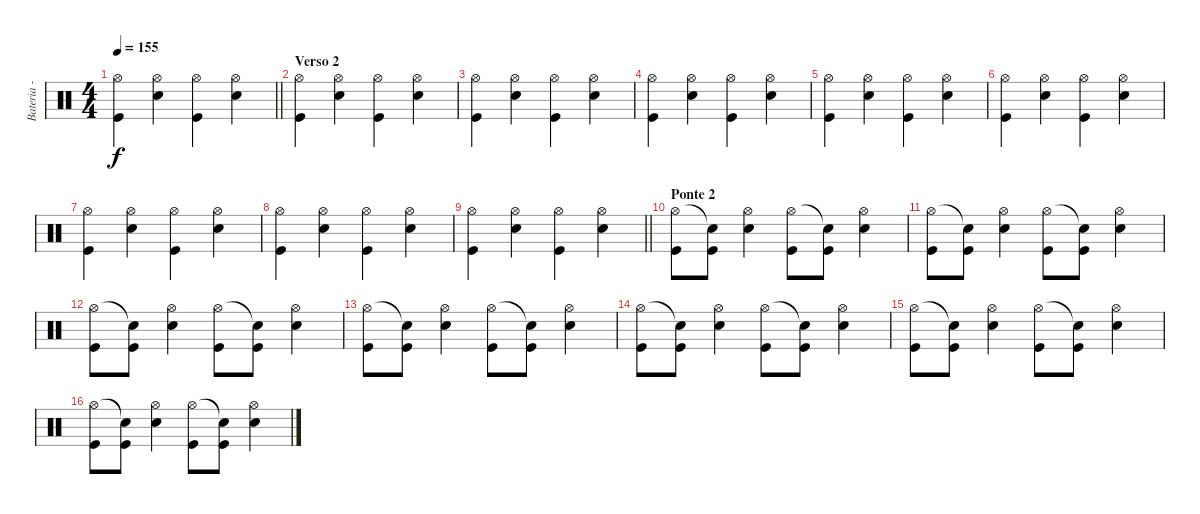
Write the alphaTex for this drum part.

\track ("Bateria - Craig Nunumacher" "Bateria - ") {instrument percussion}
\staff {score}
\articulation defaults
\ts (4 4)
\tempo 155
\clef neutral
\barLineRight lightlight
\ks c
("Hi-Hat (open)" "Kick (hit)").4{dy f} ("Hi-Hat (open)" "Electric Snare (hit)").4 ("Hi-Hat (open)" "Kick (hit)").4 ("Hi-Hat (open)" "Electric Snare (hit)").4 |
\section ("" "Verso 2")
("Hi-Hat (open)" "Kick (hit)").4 ("Hi-Hat (open)" "Electric Snare (hit)").4 ("Hi-Hat (open)" "Kick (hit)").4 ("Hi-Hat (open)" "Electric Snare (hit)").4 |
("Hi-Hat (open)" "Kick (hit)").4 ("Hi-Hat (open)" "Electric Snare (hit)").4 ("Hi-Hat (open)" "Kick (hit)").4 ("Hi-Hat (open)" "Electric Snare (hit)").4 |
("Hi-Hat (open)" "Kick (hit)").4 ("Hi-Hat (open)" "Electric Snare (hit)").4 ("Hi-Hat (open)" "Kick (hit)").4 ("Hi-Hat (open)" "Electric Snare (hit)").4 |
("Hi-Hat (open)" "Kick (hit)").4 ("Hi-Hat (open)" "Electric Snare (hit)").4 ("Hi-Hat (open)" "Kick (hit)").4 ("Hi-Hat (open)" "Electric Snare (hit)").4 |
("Hi-Hat (open)" "Kick (hit)").4 ("Hi-Hat (open)" "Electric Snare (hit)").4 ("Hi-Hat (open)" "Kick (hit)").4 ("Hi-Hat (open)" "Electric Snare (hit)").4 |
("Hi-Hat (open)" "Kick (hit)").4 ("Hi-Hat (open)" "Electric Snare (hit)").4 ("Hi-Hat (open)" "Kick (hit)").4 ("Hi-Hat (open)" "Electric Snare (hit)").4 |
("Hi-Hat (open)" "Kick (hit)").4 ("Hi-Hat (open)" "Electric Snare (hit)").4 ("Hi-Hat (open)" "Kick (hit)").4 ("Hi-Hat (open)" "Electric Snare (hit)").4 |
\barLineRight lightlight
("Hi-Hat (open)" "Kick (hit)").4 ("Hi-Hat (open)" "Electric Snare (hit)").4 ("Hi-Hat (open)" "Kick (hit)").4 ("Hi-Hat (open)" "Electric Snare (hit)").4 |
\section ("" "Ponte 2")
("Hi-Hat (open)" "Kick (hit)").8 ("Snare (hit)"{t} "Kick (hit)").8 ("Hi-Hat (open)" "Electric Snare (hit)").4 ("Hi-Hat (open)" "Kick (hit)").8 ("Snare (hit)"{t} "Kick (hit)").8 ("Hi-Hat (open)" "Electric Snare (hit)").4 |
("Hi-Hat (open)" "Kick (hit)").8 ("Snare (hit)"{t} "Kick (hit)").8 ("Hi-Hat (open)" "Electric Snare (hit)").4 ("Hi-Hat (open)" "Kick (hit)").8 ("Snare (hit)"{t} "Kick (hit)").8 ("Hi-Hat (open)" "Electric Snare (hit)").4 |
("Hi-Hat (open)" "Kick (hit)").8 ("Snare (hit)"{t} "Kick (hit)").8 ("Hi-Hat (open)" "Electric Snare (hit)").4 ("Hi-Hat (open)" "Kick (hit)").8 ("Snare (hit)"{t} "Kick (hit)").8 ("Hi-Hat (open)" "Electric Snare (hit)").4 |
("Hi-Hat (open)" "Kick (hit)").8 ("Snare (hit)"{t} "Kick (hit)").8 ("Hi-Hat (open)" "Electric Snare (hit)").4 ("Hi-Hat (open)" "Kick (hit)").8 ("Snare (hit)"{t} "Kick (hit)").8 ("Hi-Hat (open)" "Electric Snare (hit)").4 |
("Hi-Hat (open)" "Kick (hit)").8 ("Snare (hit)"{t} "Kick (hit)").8 ("Hi-Hat (open)" "Electric Snare (hit)").4 ("Hi-Hat (open)" "Kick (hit)").8 ("Snare (hit)"{t} "Kick (hit)").8 ("Hi-Hat (open)" "Electric Snare (hit)").4 |
("Hi-Hat (open)" "Kick (hit)").8 ("Snare (hit)"{t} "Kick (hit)").8 ("Hi-Hat (open)" "Electric Snare (hit)").4 ("Hi-Hat (open)" "Kick (hit)").8 ("Snare (hit)"{t} "Kick (hit)").8 ("Hi-Hat (open)" "Electric Snare (hit)").4 |
("Hi-Hat (open)" "Kick (hit)").8 ("Snare (hit)"{t} "Kick (hit)").8 ("Hi-Hat (open)" "Electric Snare (hit)").4 ("Hi-Hat (open)" "Kick (hit)").8 ("Snare (hit)"{t} "Kick (hit)").8 ("Hi-Hat (open)" "Electric Snare (hit)").4
